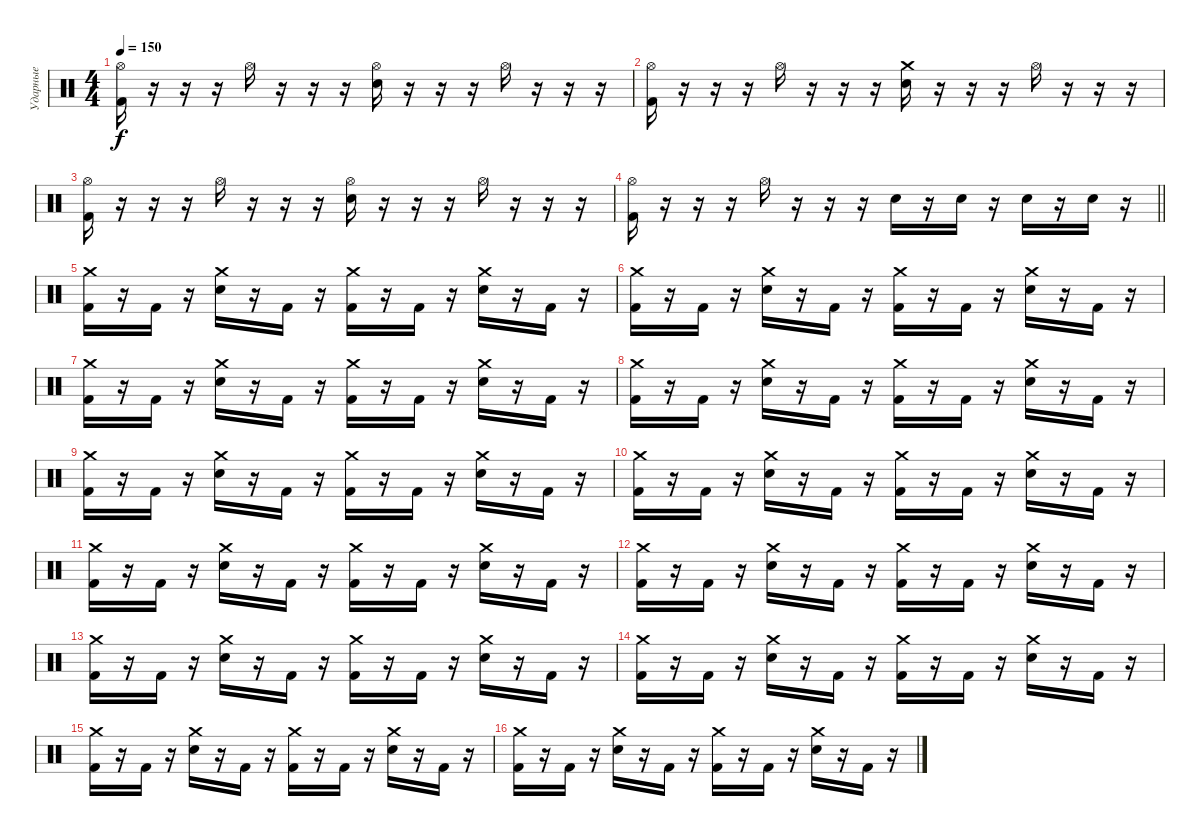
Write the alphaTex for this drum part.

\track ("Ударные" "Ударные") {instrument percussion}
\staff {score}
\articulation defaults
\ts (4 4)
\tempo 150
\clef neutral
\ks c
("Hi-Hat (open)" "Kick (hit) 2").16{dy f} r.16 r.16 r.16 "Hi-Hat (open)".16 r.16 r.16 r.16 ("Hi-Hat (open)" "Electric Snare (hit)").16 r.16 r.16 r.16 "Hi-Hat (open)".16 r.16 r.16 r.16 |
("Hi-Hat (open)" "Kick (hit) 2").16 r.16 r.16 r.16 "Hi-Hat (open)".16 r.16 r.16 r.16 ("Crash medium (hit)" "Electric Snare (hit)").16 r.16 r.16 r.16 "Hi-Hat (open)".16 r.16 r.16 r.16 |
("Hi-Hat (open)" "Kick (hit) 2").16 r.16 r.16 r.16 "Hi-Hat (open)".16 r.16 r.16 r.16 ("Hi-Hat (open)" "Electric Snare (hit)").16 r.16 r.16 r.16 "Hi-Hat (open)".16 r.16 r.16 r.16 |
\barLineRight lightlight
("Hi-Hat (open)" "Kick (hit) 2").16 r.16 r.16 r.16 "Hi-Hat (open)".16 r.16 r.16 r.16 "Electric Snare (hit)".16 r.16 "Electric Snare (hit)".16 r.16 "Electric Snare (hit)".16 r.16 "Electric Snare (hit)".16 r.16 |
("Crash medium (hit)" "Kick (hit) 2").16 r.16 "Kick (hit) 2".16 r.16 ("Crash medium (hit)" "Electric Snare (hit)").16 r.16 "Kick (hit) 2".16 r.16 ("Crash medium (hit)" "Kick (hit) 2").16 r.16 "Kick (hit) 2".16 r.16 ("Crash medium (hit)" "Electric Snare (hit)").16 r.16 "Kick (hit) 2".16 r.16 |
("Crash medium (hit)" "Kick (hit) 2").16 r.16 "Kick (hit) 2".16 r.16 ("Crash medium (hit)" "Electric Snare (hit)").16 r.16 "Kick (hit) 2".16 r.16 ("Crash medium (hit)" "Kick (hit) 2").16 r.16 "Kick (hit) 2".16 r.16 ("Crash medium (hit)" "Electric Snare (hit)").16 r.16 "Kick (hit) 2".16 r.16 |
("Crash medium (hit)" "Kick (hit) 2").16 r.16 "Kick (hit) 2".16 r.16 ("Crash medium (hit)" "Electric Snare (hit)").16 r.16 "Kick (hit) 2".16 r.16 ("Crash medium (hit)" "Kick (hit) 2").16 r.16 "Kick (hit) 2".16 r.16 ("Crash medium (hit)" "Electric Snare (hit)").16 r.16 "Kick (hit) 2".16 r.16 |
("Crash medium (hit)" "Kick (hit) 2").16 r.16 "Kick (hit) 2".16 r.16 ("Crash medium (hit)" "Electric Snare (hit)").16 r.16 "Kick (hit) 2".16 r.16 ("Crash medium (hit)" "Kick (hit) 2").16 r.16 "Kick (hit) 2".16 r.16 ("Crash medium (hit)" "Electric Snare (hit)").16 r.16 "Kick (hit) 2".16 r.16 |
("Crash medium (hit)" "Kick (hit) 2").16 r.16 "Kick (hit) 2".16 r.16 ("Crash medium (hit)" "Electric Snare (hit)").16 r.16 "Kick (hit) 2".16 r.16 ("Crash medium (hit)" "Kick (hit) 2").16 r.16 "Kick (hit) 2".16 r.16 ("Crash medium (hit)" "Electric Snare (hit)").16 r.16 "Kick (hit) 2".16 r.16 |
("Crash medium (hit)" "Kick (hit) 2").16 r.16 "Kick (hit) 2".16 r.16 ("Crash medium (hit)" "Electric Snare (hit)").16 r.16 "Kick (hit) 2".16 r.16 ("Crash medium (hit)" "Kick (hit) 2").16 r.16 "Kick (hit) 2".16 r.16 ("Crash medium (hit)" "Electric Snare (hit)").16 r.16 "Kick (hit) 2".16 r.16 |
("Crash medium (hit)" "Kick (hit) 2").16 r.16 "Kick (hit) 2".16 r.16 ("Crash medium (hit)" "Electric Snare (hit)").16 r.16 "Kick (hit) 2".16 r.16 ("Crash medium (hit)" "Kick (hit) 2").16 r.16 "Kick (hit) 2".16 r.16 ("Crash medium (hit)" "Electric Snare (hit)").16 r.16 "Kick (hit) 2".16 r.16 |
("Crash medium (hit)" "Kick (hit) 2").16 r.16 "Kick (hit) 2".16 r.16 ("Crash medium (hit)" "Electric Snare (hit)").16 r.16 "Kick (hit) 2".16 r.16 ("Crash medium (hit)" "Kick (hit) 2").16 r.16 "Kick (hit) 2".16 r.16 ("Crash medium (hit)" "Electric Snare (hit)").16 r.16 "Kick (hit) 2".16 r.16 |
("Crash medium (hit)" "Kick (hit) 2").16 r.16 "Kick (hit) 2".16 r.16 ("Crash medium (hit)" "Electric Snare (hit)").16 r.16 "Kick (hit) 2".16 r.16 ("Crash medium (hit)" "Kick (hit) 2").16 r.16 "Kick (hit) 2".16 r.16 ("Crash medium (hit)" "Electric Snare (hit)").16 r.16 "Kick (hit) 2".16 r.16 |
("Crash medium (hit)" "Kick (hit) 2").16 r.16 "Kick (hit) 2".16 r.16 ("Crash medium (hit)" "Electric Snare (hit)").16 r.16 "Kick (hit) 2".16 r.16 ("Crash medium (hit)" "Kick (hit) 2").16 r.16 "Kick (hit) 2".16 r.16 ("Crash medium (hit)" "Electric Snare (hit)").16 r.16 "Kick (hit) 2".16 r.16 |
("Crash medium (hit)" "Kick (hit) 2").16 r.16 "Kick (hit) 2".16 r.16 ("Crash medium (hit)" "Electric Snare (hit)").16 r.16 "Kick (hit) 2".16 r.16 ("Crash medium (hit)" "Kick (hit) 2").16 r.16 "Kick (hit) 2".16 r.16 ("Crash medium (hit)" "Electric Snare (hit)").16 r.16 "Kick (hit) 2".16 r.16 |
("Crash medium (hit)" "Kick (hit) 2").16 r.16 "Kick (hit) 2".16 r.16 ("Crash medium (hit)" "Electric Snare (hit)").16 r.16 "Kick (hit) 2".16 r.16 ("Crash medium (hit)" "Kick (hit) 2").16 r.16 "Kick (hit) 2".16 r.16 ("Crash medium (hit)" "Electric Snare (hit)").16 r.16 "Kick (hit) 2".16 r.16
